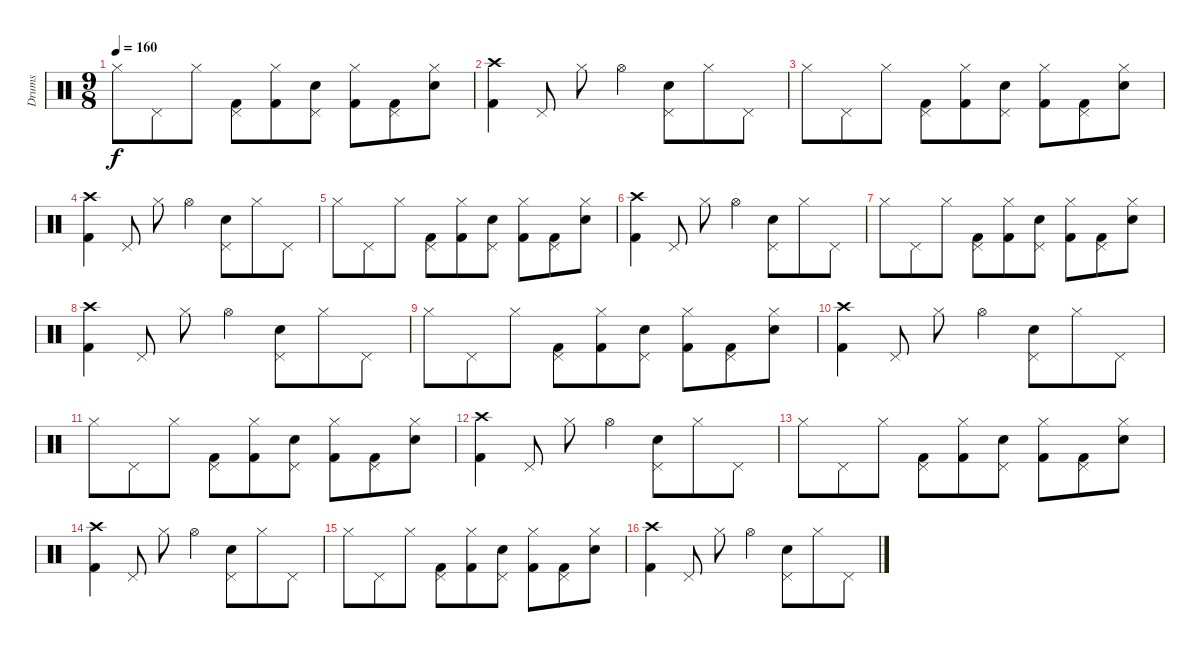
\track ("Drums" "Drums") {instrument percussion}
\staff {score}
\articulation defaults
\ts (9 8)
\tempo 160
\clef neutral
\ks c "Hi-Hat (closed)".8{dy f} "Pedal Hi-Hat (hit)".8 "Hi-Hat (closed)".8
("Pedal Hi-Hat (hit)" "Kick (hit) 2").8 ("Hi-Hat (closed)" "Kick (hit) 2").8 ("Pedal Hi-Hat (hit)" "Electric Snare (hit)").8 ("Hi-Hat (closed)" "Kick (hit) 2").8 ("Pedal Hi-Hat (hit)" "Kick (hit) 2").8 ("Hi-Hat (closed)" "Electric Snare (hit)").8 |
("Crash high (hit)" "Kick (hit) 2").4 "Pedal Hi-Hat (hit)".8 "Hi-Hat (closed)".8 "Hi-Hat (open)".4 ("Pedal Hi-Hat (hit)" "Electric Snare (hit)").8 "Hi-Hat (closed)".8 "Pedal Hi-Hat (hit)".8 |
"Hi-Hat (closed)".8 "Pedal Hi-Hat (hit)".8 "Hi-Hat (closed)".8 ("Pedal Hi-Hat (hit)" "Kick (hit) 2").8 ("Hi-Hat (closed)" "Kick (hit) 2").8 ("Pedal Hi-Hat (hit)" "Electric Snare (hit)").8 ("Hi-Hat (closed)" "Kick (hit) 2").8 ("Pedal Hi-Hat (hit)" "Kick (hit) 2").8 ("Hi-Hat (closed)" "Electric Snare (hit)").8 |
("Crash high (hit)" "Kick (hit) 2").4 "Pedal Hi-Hat (hit)".8 "Hi-Hat (closed)".8 "Hi-Hat (open)".4 ("Pedal Hi-Hat (hit)" "Electric Snare (hit)").8 "Hi-Hat (closed)".8 "Pedal Hi-Hat (hit)".8 |
"Hi-Hat (closed)".8 "Pedal Hi-Hat (hit)".8 "Hi-Hat (closed)".8 ("Pedal Hi-Hat (hit)" "Kick (hit) 2").8 ("Hi-Hat (closed)" "Kick (hit) 2").8 ("Pedal Hi-Hat (hit)" "Electric Snare (hit)").8 ("Hi-Hat (closed)" "Kick (hit) 2").8 ("Pedal Hi-Hat (hit)" "Kick (hit) 2").8 ("Hi-Hat (closed)" "Electric Snare (hit)").8 |
("Crash high (hit)" "Kick (hit) 2").4 "Pedal Hi-Hat (hit)".8 "Hi-Hat (closed)".8 "Hi-Hat (open)".4 ("Pedal Hi-Hat (hit)" "Electric Snare (hit)").8 "Hi-Hat (closed)".8 "Pedal Hi-Hat (hit)".8 |
"Hi-Hat (closed)".8 "Pedal Hi-Hat (hit)".8 "Hi-Hat (closed)".8 ("Pedal Hi-Hat (hit)" "Kick (hit) 2").8 ("Hi-Hat (closed)" "Kick (hit) 2").8 ("Pedal Hi-Hat (hit)" "Electric Snare (hit)").8 ("Hi-Hat (closed)" "Kick (hit) 2").8 ("Pedal Hi-Hat (hit)" "Kick (hit) 2").8 ("Hi-Hat (closed)" "Electric Snare (hit)").8 |
("Crash high (hit)" "Kick (hit) 2").4 "Pedal Hi-Hat (hit)".8 "Hi-Hat (closed)".8 "Hi-Hat (open)".4 ("Pedal Hi-Hat (hit)" "Electric Snare (hit)").8 "Hi-Hat (closed)".8 "Pedal Hi-Hat (hit)".8 |
"Hi-Hat (closed)".8 "Pedal Hi-Hat (hit)".8 "Hi-Hat (closed)".8 ("Pedal Hi-Hat (hit)" "Kick (hit) 2").8 ("Hi-Hat (closed)" "Kick (hit) 2").8 ("Pedal Hi-Hat (hit)" "Electric Snare (hit)").8 ("Hi-Hat (closed)" "Kick (hit) 2").8 ("Pedal Hi-Hat (hit)" "Kick (hit) 2").8 ("Hi-Hat (closed)" "Electric Snare (hit)").8 |
("Crash high (hit)" "Kick (hit) 2").4 "Pedal Hi-Hat (hit)".8 "Hi-Hat (closed)".8 "Hi-Hat (open)".4 ("Pedal Hi-Hat (hit)" "Electric Snare (hit)").8 "Hi-Hat (closed)".8 "Pedal Hi-Hat (hit)".8 |
"Hi-Hat (closed)".8 "Pedal Hi-Hat (hit)".8 "Hi-Hat (closed)".8 ("Pedal Hi-Hat (hit)" "Kick (hit) 2").8 ("Hi-Hat (closed)" "Kick (hit) 2").8 ("Pedal Hi-Hat (hit)" "Electric Snare (hit)").8 ("Hi-Hat (closed)" "Kick (hit) 2").8 ("Pedal Hi-Hat (hit)" "Kick (hit) 2").8 ("Hi-Hat (closed)" "Electric Snare (hit)").8 |
("Crash high (hit)" "Kick (hit) 2").4 "Pedal Hi-Hat (hit)".8 "Hi-Hat (closed)".8 "Hi-Hat (open)".4 ("Pedal Hi-Hat (hit)" "Electric Snare (hit)").8 "Hi-Hat (closed)".8 "Pedal Hi-Hat (hit)".8 |
"Hi-Hat (closed)".8 "Pedal Hi-Hat (hit)".8 "Hi-Hat (closed)".8 ("Pedal Hi-Hat (hit)" "Kick (hit) 2").8 ("Hi-Hat (closed)" "Kick (hit) 2").8 ("Pedal Hi-Hat (hit)" "Electric Snare (hit)").8 ("Hi-Hat (closed)" "Kick (hit) 2").8 ("Pedal Hi-Hat (hit)" "Kick (hit) 2").8 ("Hi-Hat (closed)" "Electric Snare (hit)").8 |
("Crash high (hit)" "Kick (hit) 2").4 "Pedal Hi-Hat (hit)".8 "Hi-Hat (closed)".8 "Hi-Hat (open)".4 ("Pedal Hi-Hat (hit)" "Electric Snare (hit)").8 "Hi-Hat (closed)".8 "Pedal Hi-Hat (hit)".8 |
"Hi-Hat (closed)".8 "Pedal Hi-Hat (hit)".8 "Hi-Hat (closed)".8 ("Pedal Hi-Hat (hit)" "Kick (hit) 2").8 ("Hi-Hat (closed)" "Kick (hit) 2").8 ("Pedal Hi-Hat (hit)" "Electric Snare (hit)").8 ("Hi-Hat (closed)" "Kick (hit) 2").8 ("Pedal Hi-Hat (hit)" "Kick (hit) 2").8 ("Hi-Hat (closed)" "Electric Snare (hit)").8 |
("Crash high (hit)" "Kick (hit) 2").4 "Pedal Hi-Hat (hit)".8 "Hi-Hat (closed)".8 "Hi-Hat (open)".4 ("Pedal Hi-Hat (hit)" "Electric Snare (hit)").8 "Hi-Hat (closed)".8 "Pedal Hi-Hat (hit)".8
